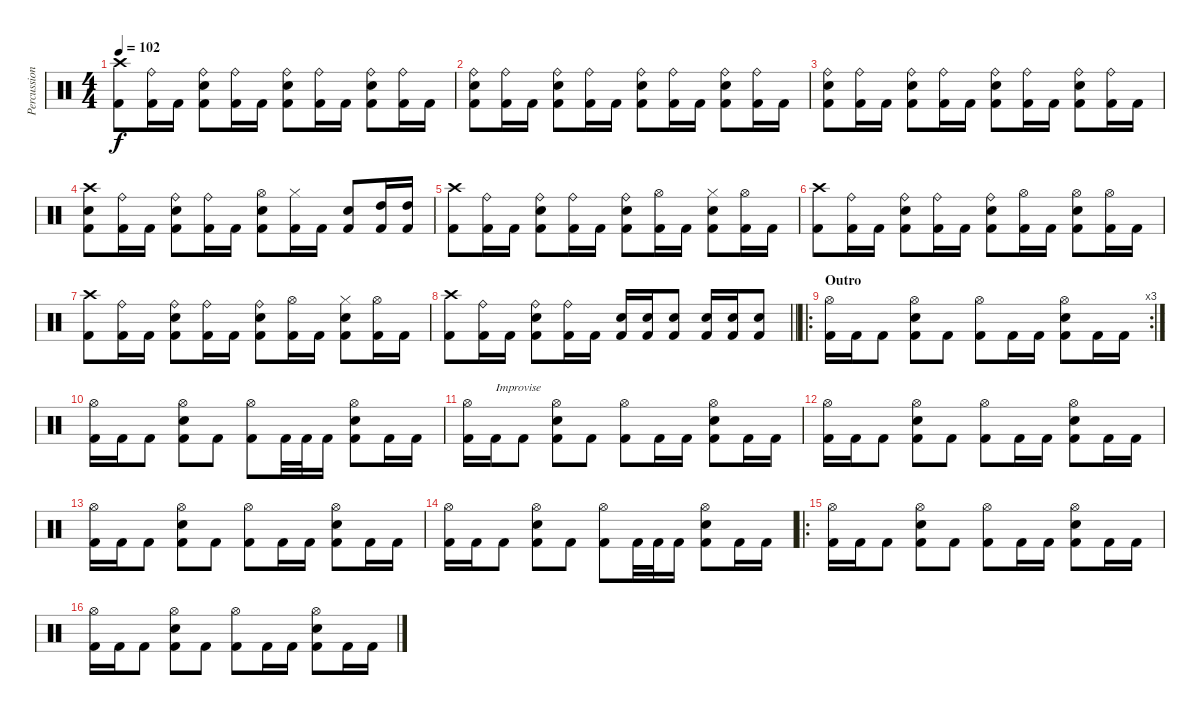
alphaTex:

\track ("Percussion" "Percussion") {instrument percussion}
\staff {score}
\articulation defaults
\ts (4 4)
\tempo 102
\clef neutral
\ks c
("Crash high (hit)" "Kick (hit) 2").8{dy f} ("Ride (bell)" "Kick (hit) 2").16 "Kick (hit) 2".16 ("Ride (bell)" "Snare (hit) 2" "Kick (hit) 2").8 ("Ride (bell)" "Kick (hit) 2").16 "Kick (hit) 2".16 ("Ride (bell)" "Snare (hit) 2" "Kick (hit) 2").8 ("Ride (bell)" "Kick (hit) 2").16 "Kick (hit) 2".16 ("Ride (bell)" "Snare (hit) 2" "Kick (hit) 2").8 ("Ride (bell)" "Kick (hit) 2").16 "Kick (hit) 2".16 |
("Ride (bell)" "Snare (hit) 2" "Kick (hit) 2").8 ("Ride (bell)" "Kick (hit) 2").16 "Kick (hit) 2".16 ("Ride (bell)" "Snare (hit) 2" "Kick (hit) 2").8 ("Ride (bell)" "Kick (hit) 2").16 "Kick (hit) 2".16 ("Ride (bell)" "Snare (hit) 2" "Kick (hit) 2").8 ("Ride (bell)" "Kick (hit) 2").16 "Kick (hit) 2".16 ("Ride (bell)" "Snare (hit) 2" "Kick (hit) 2").8 ("Ride (bell)" "Kick (hit) 2").16 "Kick (hit) 2".16 |
("Ride (bell)" "Snare (hit) 2" "Kick (hit) 2").8 ("Ride (bell)" "Kick (hit) 2").16 "Kick (hit) 2".16 ("Ride (bell)" "Snare (hit) 2" "Kick (hit) 2").8 ("Ride (bell)" "Kick (hit) 2").16 "Kick (hit) 2".16 ("Ride (bell)" "Snare (hit) 2" "Kick (hit) 2").8 ("Ride (bell)" "Kick (hit) 2").16 "Kick (hit) 2".16 ("Ride (bell)" "Snare (hit) 2" "Kick (hit) 2").8 ("Ride (bell)" "Kick (hit) 2").16 "Kick (hit) 2".16 |
("Crash high (hit)" "Snare (hit) 2" "Kick (hit) 2").8 ("Ride (bell)" "Kick (hit) 2").16 "Kick (hit) 2".16 ("Ride (bell)" "Snare (hit) 2" "Kick (hit) 2").8 ("Ride (bell)" "Kick (hit) 2").16 "Kick (hit) 2".16 ("Hi-Hat (open)" "Snare (hit) 2" "Kick (hit) 2").8 ("Hi-Hat (closed)" "Kick (hit) 2").16 "Kick (hit) 2".16 ("Snare (hit) 2" "Kick (hit) 2").8 ("High Tom (hit)" "Kick (hit) 2").16 ("High Tom (hit)" "Kick (hit) 2").16 |
("Crash high (hit)" "Kick (hit) 2").8 ("Ride (bell)" "Kick (hit) 2").16 "Kick (hit) 2".16 ("Ride (bell)" "Snare (hit) 2" "Kick (hit) 2").8 ("Ride (bell)" "Kick (hit) 2").16 "Kick (hit) 2".16 ("Ride (bell)" "Snare (hit) 2" "Kick (hit) 2").8 ("Hi-Hat (open)" "Kick (hit) 2").16 "Kick (hit) 2".16 ("Hi-Hat (closed)" "Snare (hit) 2" "Kick (hit) 2").8 ("Hi-Hat (open)" "Kick (hit) 2").16 "Kick (hit) 2".16 |
("Crash high (hit)" "Kick (hit) 2").8 ("Ride (bell)" "Kick (hit) 2").16 "Kick (hit) 2".16 ("Ride (bell)" "Snare (hit) 2" "Kick (hit) 2").8 ("Ride (bell)" "Kick (hit) 2").16 "Kick (hit) 2".16 ("Ride (bell)" "Snare (hit) 2" "Kick (hit) 2").8 ("Hi-Hat (open)" "Kick (hit) 2").16 "Kick (hit) 2".16 ("Hi-Hat (open)" "Snare (hit) 2" "Kick (hit) 2").8 ("Hi-Hat (open)" "Kick (hit) 2").16 "Kick (hit) 2".16 |
("Crash high (hit)" "Kick (hit) 2").8 ("Ride (bell)" "Kick (hit) 2").16 "Kick (hit) 2".16 ("Ride (bell)" "Snare (hit) 2" "Kick (hit) 2").8 ("Ride (bell)" "Kick (hit) 2").16 "Kick (hit) 2".16 ("Ride (bell)" "Snare (hit) 2" "Kick (hit) 2").8 ("Hi-Hat (open)" "Kick (hit) 2").16 "Kick (hit) 2".16 ("Hi-Hat (closed)" "Snare (hit) 2" "Kick (hit) 2").8 ("Hi-Hat (open)" "Kick (hit) 2").16 "Kick (hit) 2".16 |
\barLineRight lightlight
("Crash high (hit)" "Kick (hit) 2").8 ("Ride (bell)" "Kick (hit) 2").16 "Kick (hit) 2".16 ("Ride (bell)" "Snare (hit) 2" "Kick (hit) 2").8 ("Ride (bell)" "Kick (hit) 2").16 "Kick (hit) 2".16 ("Snare (hit) 2" "Kick (hit) 2").16 ("Snare (hit) 2" "Kick (hit) 2").16 ("Snare (hit) 2" "Kick (hit) 2").8 ("Snare (hit) 2" "Kick (hit) 2").16 ("Snare (hit) 2" "Kick (hit) 2").16 ("Snare (hit) 2" "Kick (hit) 2").8 |
\ro
\rc 3
\section ("" "Outro")
("Hi-Hat (open)" "Kick (hit) 2").16 "Kick (hit) 2".16 "Kick (hit) 2".8 ("Hi-Hat (open)" "Snare (hit) 2" "Kick (hit) 2").8 "Kick (hit) 2".8 ("Hi-Hat (open)" "Kick (hit) 2").8 "Kick (hit) 2".16 "Kick (hit) 2".16 ("Hi-Hat (open)" "Snare (hit) 2" "Kick (hit) 2").8 "Kick (hit) 2".16 "Kick (hit) 2".16 |
("Hi-Hat (open)" "Kick (hit) 2").16 "Kick (hit) 2".16 "Kick (hit) 2".8 ("Hi-Hat (open)" "Snare (hit) 2" "Kick (hit) 2").8 "Kick (hit) 2".8 ("Hi-Hat (open)" "Kick (hit) 2").8 "Kick (hit) 2".32 "Kick (hit) 2".32 "Kick (hit) 2".16 ("Hi-Hat (open)" "Snare (hit) 2" "Kick (hit) 2").8 "Kick (hit) 2".16 "Kick (hit) 2".16 |
("Hi-Hat (open)" "Kick (hit) 2").16 "Kick (hit) 2".16{txt "Improvise"} "Kick (hit) 2".8 ("Hi-Hat (open)" "Snare (hit) 2" "Kick (hit) 2").8 "Kick (hit) 2".8 ("Hi-Hat (open)" "Kick (hit) 2").8 "Kick (hit) 2".16 "Kick (hit) 2".16 ("Hi-Hat (open)" "Snare (hit) 2" "Kick (hit) 2").8 "Kick (hit) 2".16 "Kick (hit) 2".16 |
("Hi-Hat (open)" "Kick (hit) 2").16 "Kick (hit) 2".16 "Kick (hit) 2".8 ("Hi-Hat (open)" "Snare (hit) 2" "Kick (hit) 2").8 "Kick (hit) 2".8 ("Hi-Hat (open)" "Kick (hit) 2").8 "Kick (hit) 2".16 "Kick (hit) 2".16 ("Hi-Hat (open)" "Snare (hit) 2" "Kick (hit) 2").8 "Kick (hit) 2".16 "Kick (hit) 2".16 |
("Hi-Hat (open)" "Kick (hit) 2").16 "Kick (hit) 2".16 "Kick (hit) 2".8 ("Hi-Hat (open)" "Snare (hit) 2" "Kick (hit) 2").8 "Kick (hit) 2".8 ("Hi-Hat (open)" "Kick (hit) 2").8 "Kick (hit) 2".16 "Kick (hit) 2".16 ("Hi-Hat (open)" "Snare (hit) 2" "Kick (hit) 2").8 "Kick (hit) 2".16 "Kick (hit) 2".16 |
("Hi-Hat (open)" "Kick (hit) 2").16 "Kick (hit) 2".16 "Kick (hit) 2".8 ("Hi-Hat (open)" "Snare (hit) 2" "Kick (hit) 2").8 "Kick (hit) 2".8 ("Hi-Hat (open)" "Kick (hit) 2").8 "Kick (hit) 2".32 "Kick (hit) 2".32 "Kick (hit) 2".16 ("Hi-Hat (open)" "Snare (hit) 2" "Kick (hit) 2").8 "Kick (hit) 2".16 "Kick (hit) 2".16 |
\ro
("Hi-Hat (open)" "Kick (hit) 2").16 "Kick (hit) 2".16 "Kick (hit) 2".8 ("Hi-Hat (open)" "Snare (hit) 2" "Kick (hit) 2").8 "Kick (hit) 2".8 ("Hi-Hat (open)" "Kick (hit) 2").8 "Kick (hit) 2".16 "Kick (hit) 2".16 ("Hi-Hat (open)" "Snare (hit) 2" "Kick (hit) 2").8 "Kick (hit) 2".16 "Kick (hit) 2".16 |
("Hi-Hat (open)" "Kick (hit) 2").16 "Kick (hit) 2".16 "Kick (hit) 2".8 ("Hi-Hat (open)" "Snare (hit) 2" "Kick (hit) 2").8 "Kick (hit) 2".8 ("Hi-Hat (open)" "Kick (hit) 2").8 "Kick (hit) 2".16 "Kick (hit) 2".16 ("Hi-Hat (open)" "Snare (hit) 2" "Kick (hit) 2").8 "Kick (hit) 2".16 "Kick (hit) 2".16
